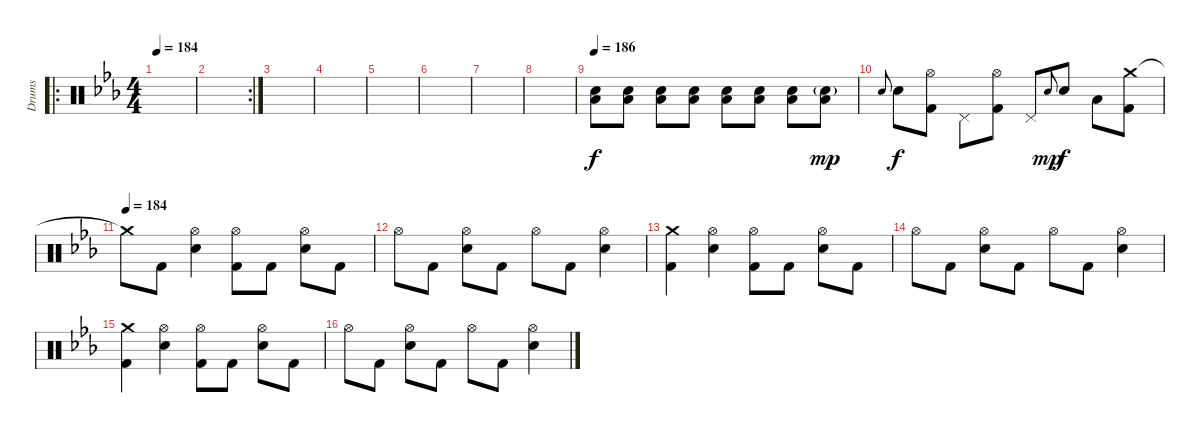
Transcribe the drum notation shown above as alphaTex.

\track ("Drums" "Drums") {instrument percussion}
\staff {score}
\articulation defaults
\ro
\ts (4 4)
\tempo 184
\clef neutral
\ks eb
|
\rc 2
|
|
|
|
|
|
|
\tempo 186
("Electric Snare (hit)" "Low Floor Tom (hit)").8{volume 13} ("Electric Snare (hit)" "Low Floor Tom (hit)").8 ("Electric Snare (hit)" "Low Floor Tom (hit)").8 ("Electric Snare (hit)" "Low Floor Tom (hit)").8 ("Electric Snare (hit)" "Low Floor Tom (hit)").8 ("Electric Snare (hit)" "Low Floor Tom (hit)").8 ("Electric Snare (hit)" "Low Floor Tom (hit)").8 ("Electric Snare (hit)"{g} "Low Floor Tom (hit)").8{dy mp} |
"Electric Snare (hit)".8{gr onbeat} "Electric Snare (hit)".8{dy f} ("Hi-Hat (open)" "Kick (hit) 2").8 "Pedal Hi-Hat (hit)".8 ("Hi-Hat (open)" "Kick (hit) 2").8 "Pedal Hi-Hat (hit)".8 "Electric Snare (hit)".8{gr onbeat dy mp} "Electric Snare (hit)".8{dy f} "Low Tom (hit)".8 ("Crash medium (hit)" "Kick (hit) 2").8 |
\tempo (184)
"Crash medium (hit)"{t}.8 "Kick (hit) 2".8 ("Hi-Hat (open)" "Electric Snare (hit)").4 ("Hi-Hat (open)" "Kick (hit) 2").8 "Kick (hit) 2".8 ("Hi-Hat (open)" "Electric Snare (hit)").8 "Kick (hit) 2".8 |
"Hi-Hat (open)".8 "Kick (hit) 2".8 ("Hi-Hat (open)" "Electric Snare (hit)").8 "Kick (hit) 2".8 "Hi-Hat (open)".8 "Kick (hit) 2".8 ("Hi-Hat (open)" "Electric Snare (hit)").4 |
("Crash medium (hit)" "Kick (hit) 2").4 ("Hi-Hat (open)" "Electric Snare (hit)").4 ("Hi-Hat (open)" "Kick (hit) 2").8 "Kick (hit) 2".8 ("Hi-Hat (open)" "Electric Snare (hit)").8 "Kick (hit) 2".8 |
"Hi-Hat (open)".8 "Kick (hit) 2".8 ("Hi-Hat (open)" "Electric Snare (hit)").8 "Kick (hit) 2".8 "Hi-Hat (open)".8 "Kick (hit) 2".8 ("Hi-Hat (open)" "Electric Snare (hit)").4 |
("Crash medium (hit)" "Kick (hit) 2").4 ("Hi-Hat (open)" "Electric Snare (hit)").4 ("Hi-Hat (open)" "Kick (hit) 2").8 "Kick (hit) 2".8 ("Hi-Hat (open)" "Electric Snare (hit)").8 "Kick (hit) 2".8 |
"Hi-Hat (open)".8 "Kick (hit) 2".8 ("Hi-Hat (open)" "Electric Snare (hit)").8 "Kick (hit) 2".8 "Hi-Hat (open)".8 "Kick (hit) 2".8 ("Hi-Hat (open)" "Electric Snare (hit)").4
